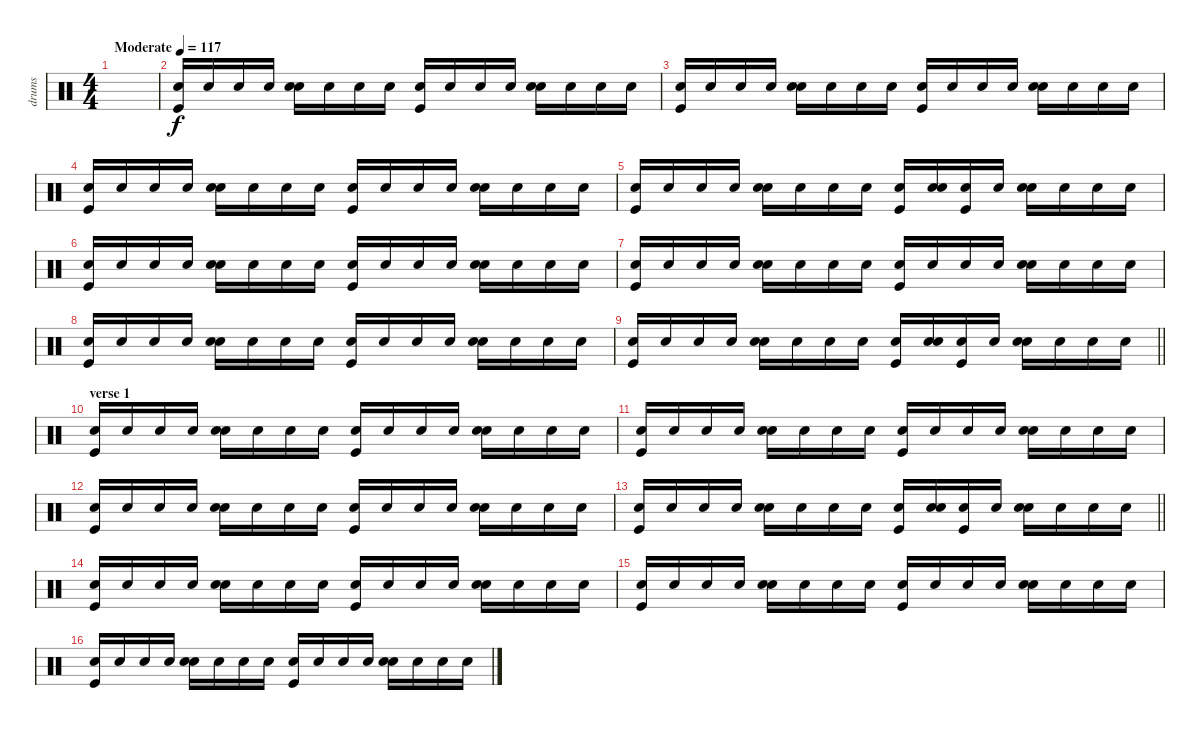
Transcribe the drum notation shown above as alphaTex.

\track ("drums" "drums") {instrument percussion}
\staff {score}
\articulation defaults
\ts (4 4)
\tempo (117 "Moderate")
\clef neutral
\ks c
|
("Electric Snare (hit)" "Kick (hit)").16 "Electric Snare (hit)".16 "Electric Snare (hit)".16 "Electric Snare (hit)".16 ("Snare (hit) 2" "Electric Snare (hit)").16 "Electric Snare (hit)".16 "Electric Snare (hit)".16 "Electric Snare (hit)".16 ("Electric Snare (hit)" "Kick (hit)").16 "Electric Snare (hit)".16 "Electric Snare (hit)".16 "Electric Snare (hit)".16 ("Snare (hit) 2" "Electric Snare (hit)").16 "Electric Snare (hit)".16 "Electric Snare (hit)".16 "Electric Snare (hit)".16 |
("Electric Snare (hit)" "Kick (hit)").16 "Electric Snare (hit)".16 "Electric Snare (hit)".16 "Electric Snare (hit)".16 ("Snare (hit) 2" "Electric Snare (hit)").16 "Electric Snare (hit)".16 "Electric Snare (hit)".16 "Electric Snare (hit)".16 ("Electric Snare (hit)" "Kick (hit)").16 "Electric Snare (hit)".16 "Electric Snare (hit)".16 "Electric Snare (hit)".16 ("Snare (hit) 2" "Electric Snare (hit)").16 "Electric Snare (hit)".16 "Electric Snare (hit)".16 "Electric Snare (hit)".16 |
("Electric Snare (hit)" "Kick (hit)").16 "Electric Snare (hit)".16 "Electric Snare (hit)".16 "Electric Snare (hit)".16 ("Snare (hit) 2" "Electric Snare (hit)").16 "Electric Snare (hit)".16 "Electric Snare (hit)".16 "Electric Snare (hit)".16 ("Electric Snare (hit)" "Kick (hit)").16 "Electric Snare (hit)".16 "Electric Snare (hit)".16 "Electric Snare (hit)".16 ("Snare (hit) 2" "Electric Snare (hit)").16 "Electric Snare (hit)".16 "Electric Snare (hit)".16 "Electric Snare (hit)".16 |
("Electric Snare (hit)" "Kick (hit)").16 "Electric Snare (hit)".16 "Electric Snare (hit)".16 "Electric Snare (hit)".16 ("Snare (hit) 2" "Electric Snare (hit)").16 "Electric Snare (hit)".16 "Electric Snare (hit)".16 "Electric Snare (hit)".16 ("Electric Snare (hit)" "Kick (hit)").16 ("Snare (hit) 2" "Electric Snare (hit)").16 ("Electric Snare (hit)" "Kick (hit)").16 "Electric Snare (hit)".16 ("Snare (hit) 2" "Electric Snare (hit)").16 "Electric Snare (hit)".16 "Electric Snare (hit)".16 "Electric Snare (hit)".16 |
("Electric Snare (hit)" "Kick (hit)").16 "Electric Snare (hit)".16 "Electric Snare (hit)".16 "Electric Snare (hit)".16 ("Snare (hit) 2" "Electric Snare (hit)").16 "Electric Snare (hit)".16 "Electric Snare (hit)".16 "Electric Snare (hit)".16 ("Electric Snare (hit)" "Kick (hit)").16 "Electric Snare (hit)".16 "Electric Snare (hit)".16 "Electric Snare (hit)".16 ("Snare (hit) 2" "Electric Snare (hit)").16 "Electric Snare (hit)".16 "Electric Snare (hit)".16 "Electric Snare (hit)".16 |
("Electric Snare (hit)" "Kick (hit)").16 "Electric Snare (hit)".16 "Electric Snare (hit)".16 "Electric Snare (hit)".16 ("Snare (hit) 2" "Electric Snare (hit)").16 "Electric Snare (hit)".16 "Electric Snare (hit)".16 "Electric Snare (hit)".16 ("Electric Snare (hit)" "Kick (hit)").16 "Electric Snare (hit)".16 "Electric Snare (hit)".16 "Electric Snare (hit)".16 ("Snare (hit) 2" "Electric Snare (hit)").16 "Electric Snare (hit)".16 "Electric Snare (hit)".16 "Electric Snare (hit)".16 |
("Electric Snare (hit)" "Kick (hit)").16 "Electric Snare (hit)".16 "Electric Snare (hit)".16 "Electric Snare (hit)".16 ("Snare (hit) 2" "Electric Snare (hit)").16 "Electric Snare (hit)".16 "Electric Snare (hit)".16 "Electric Snare (hit)".16 ("Electric Snare (hit)" "Kick (hit)").16 "Electric Snare (hit)".16 "Electric Snare (hit)".16 "Electric Snare (hit)".16 ("Snare (hit) 2" "Electric Snare (hit)").16 "Electric Snare (hit)".16 "Electric Snare (hit)".16 "Electric Snare (hit)".16 |
\barLineRight lightlight
("Electric Snare (hit)" "Kick (hit)").16 "Electric Snare (hit)".16 "Electric Snare (hit)".16 "Electric Snare (hit)".16 ("Snare (hit) 2" "Electric Snare (hit)").16 "Electric Snare (hit)".16 "Electric Snare (hit)".16 "Electric Snare (hit)".16 ("Electric Snare (hit)" "Kick (hit)").16 ("Snare (hit) 2" "Electric Snare (hit)").16 ("Electric Snare (hit)" "Kick (hit)").16 "Electric Snare (hit)".16 ("Snare (hit) 2" "Electric Snare (hit)").16 "Electric Snare (hit)".16 "Electric Snare (hit)".16 "Electric Snare (hit)".16 |
\section ("" "verse 1")
("Electric Snare (hit)" "Kick (hit)").16 "Electric Snare (hit)".16 "Electric Snare (hit)".16 "Electric Snare (hit)".16 ("Snare (hit) 2" "Electric Snare (hit)").16 "Electric Snare (hit)".16 "Electric Snare (hit)".16 "Electric Snare (hit)".16 ("Electric Snare (hit)" "Kick (hit)").16 "Electric Snare (hit)".16 "Electric Snare (hit)".16 "Electric Snare (hit)".16 ("Snare (hit) 2" "Electric Snare (hit)").16 "Electric Snare (hit)".16 "Electric Snare (hit)".16 "Electric Snare (hit)".16 |
("Electric Snare (hit)" "Kick (hit)").16 "Electric Snare (hit)".16 "Electric Snare (hit)".16 "Electric Snare (hit)".16 ("Snare (hit) 2" "Electric Snare (hit)").16 "Electric Snare (hit)".16 "Electric Snare (hit)".16 "Electric Snare (hit)".16 ("Electric Snare (hit)" "Kick (hit)").16 "Electric Snare (hit)".16 "Electric Snare (hit)".16 "Electric Snare (hit)".16 ("Snare (hit) 2" "Electric Snare (hit)").16 "Electric Snare (hit)".16 "Electric Snare (hit)".16 "Electric Snare (hit)".16 |
("Electric Snare (hit)" "Kick (hit)").16 "Electric Snare (hit)".16 "Electric Snare (hit)".16 "Electric Snare (hit)".16 ("Snare (hit) 2" "Electric Snare (hit)").16 "Electric Snare (hit)".16 "Electric Snare (hit)".16 "Electric Snare (hit)".16 ("Electric Snare (hit)" "Kick (hit)").16 "Electric Snare (hit)".16 "Electric Snare (hit)".16 "Electric Snare (hit)".16 ("Snare (hit) 2" "Electric Snare (hit)").16 "Electric Snare (hit)".16 "Electric Snare (hit)".16 "Electric Snare (hit)".16 |
\barLineRight lightlight
("Electric Snare (hit)" "Kick (hit)").16 "Electric Snare (hit)".16 "Electric Snare (hit)".16 "Electric Snare (hit)".16 ("Snare (hit) 2" "Electric Snare (hit)").16 "Electric Snare (hit)".16 "Electric Snare (hit)".16 "Electric Snare (hit)".16 ("Electric Snare (hit)" "Kick (hit)").16 ("Snare (hit) 2" "Electric Snare (hit)").16 ("Electric Snare (hit)" "Kick (hit)").16 "Electric Snare (hit)".16 ("Snare (hit) 2" "Electric Snare (hit)").16 "Electric Snare (hit)".16 "Electric Snare (hit)".16 "Electric Snare (hit)".16 |
("Electric Snare (hit)" "Kick (hit)").16 "Electric Snare (hit)".16 "Electric Snare (hit)".16 "Electric Snare (hit)".16 ("Snare (hit) 2" "Electric Snare (hit)").16 "Electric Snare (hit)".16 "Electric Snare (hit)".16 "Electric Snare (hit)".16 ("Electric Snare (hit)" "Kick (hit)").16 "Electric Snare (hit)".16 "Electric Snare (hit)".16 "Electric Snare (hit)".16 ("Snare (hit) 2" "Electric Snare (hit)").16 "Electric Snare (hit)".16 "Electric Snare (hit)".16 "Electric Snare (hit)".16 |
("Electric Snare (hit)" "Kick (hit)").16 "Electric Snare (hit)".16 "Electric Snare (hit)".16 "Electric Snare (hit)".16 ("Snare (hit) 2" "Electric Snare (hit)").16 "Electric Snare (hit)".16 "Electric Snare (hit)".16 "Electric Snare (hit)".16 ("Electric Snare (hit)" "Kick (hit)").16 "Electric Snare (hit)".16 "Electric Snare (hit)".16 "Electric Snare (hit)".16 ("Snare (hit) 2" "Electric Snare (hit)").16 "Electric Snare (hit)".16 "Electric Snare (hit)".16 "Electric Snare (hit)".16 |
("Electric Snare (hit)" "Kick (hit)").16 "Electric Snare (hit)".16 "Electric Snare (hit)".16 "Electric Snare (hit)".16 ("Snare (hit) 2" "Electric Snare (hit)").16 "Electric Snare (hit)".16 "Electric Snare (hit)".16 "Electric Snare (hit)".16 ("Electric Snare (hit)" "Kick (hit)").16 "Electric Snare (hit)".16 "Electric Snare (hit)".16 "Electric Snare (hit)".16 ("Snare (hit) 2" "Electric Snare (hit)").16 "Electric Snare (hit)".16 "Electric Snare (hit)".16 "Electric Snare (hit)".16
